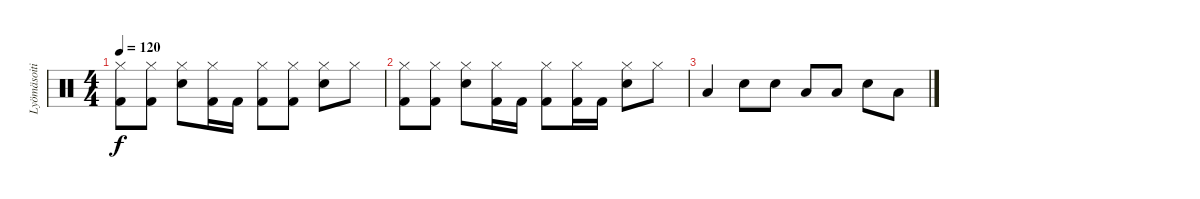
\track ("Lyömäsoitin" "Lyömäsoiti") {instrument percussion}
\staff {score}
\articulation defaults
\ts (4 4)
\tempo 120
\clef neutral
\ks c
("Kick (hit) 2" "Hi-Hat (closed)").8{dy f} ("Kick (hit) 2" "Hi-Hat (closed)").8 ("Snare (hit) 2" "Hi-Hat (closed)").8 ("Kick (hit) 2" "Hi-Hat (closed)").16 "Kick (hit) 2".16 ("Kick (hit) 2" "Hi-Hat (closed)").8 ("Kick (hit) 2" "Hi-Hat (closed)").8 ("Snare (hit) 2" "Hi-Hat (closed)").8 "Hi-Hat (closed)".8 |
("Kick (hit) 2" "Hi-Hat (closed)").8 ("Kick (hit) 2" "Hi-Hat (closed)").8 ("Snare (hit) 2" "Hi-Hat (closed)").8 ("Kick (hit) 2" "Hi-Hat (closed)").16 "Kick (hit) 2".16 ("Kick (hit) 2" "Hi-Hat (closed)").8 ("Kick (hit) 2" "Hi-Hat (closed)").16 "Kick (hit) 2".16 ("Snare (hit) 2" "Hi-Hat (closed)").8 "Hi-Hat (closed)".8 |
"Low Floor Tom (hit)".4 "Snare (hit) 2".8 "Snare (hit) 2".8 "Low Floor Tom (hit)".8 "Low Floor Tom (hit)".8 "Snare (hit) 2".8 "Low Floor Tom (hit)".8
